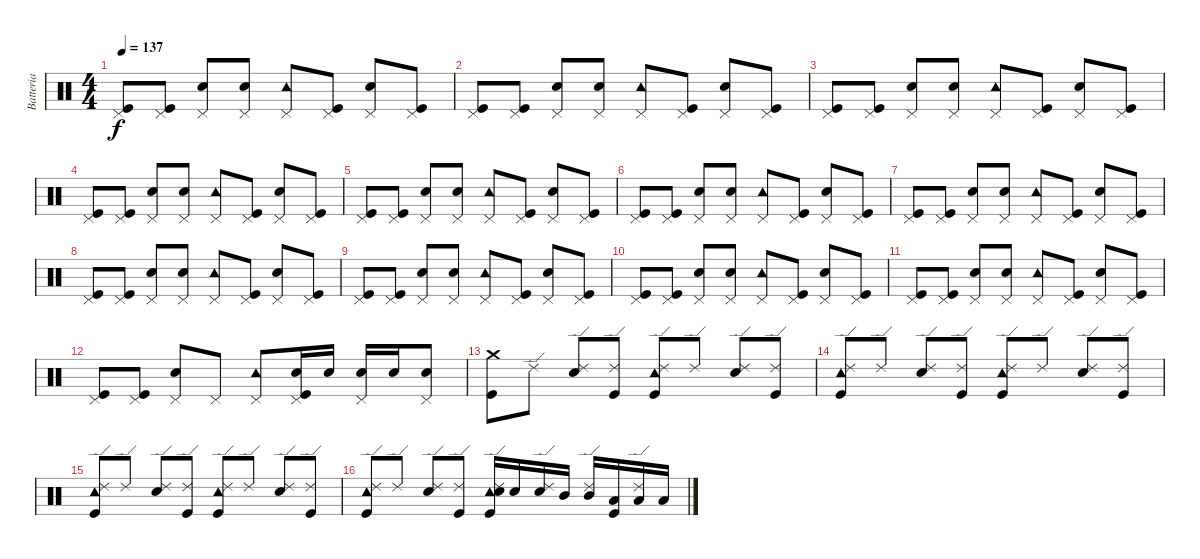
\track ("Batteria" "Batteria") {instrument percussion}
\staff {score}
\articulation defaults
\ts (4 4)
\tempo 137
\clef neutral
\ks c
("Pedal Hi-Hat (hit)" "Kick (hit)").8{dy f} ("Pedal Hi-Hat (hit)" "Kick (hit)").8 ("Pedal Hi-Hat (hit)" "Electric Snare (hit)").8 ("Pedal Hi-Hat (hit)" "Electric Snare (hit)").8 ("Pedal Hi-Hat (hit)" "Tambourine (hit)").8 ("Pedal Hi-Hat (hit)" "Kick (hit)").8 ("Pedal Hi-Hat (hit)" "Electric Snare (hit)").8 ("Pedal Hi-Hat (hit)" "Kick (hit)").8 |
("Pedal Hi-Hat (hit)" "Kick (hit)").8 ("Pedal Hi-Hat (hit)" "Kick (hit)").8 ("Pedal Hi-Hat (hit)" "Electric Snare (hit)").8 ("Pedal Hi-Hat (hit)" "Electric Snare (hit)").8 ("Pedal Hi-Hat (hit)" "Tambourine (hit)").8 ("Pedal Hi-Hat (hit)" "Kick (hit)").8 ("Pedal Hi-Hat (hit)" "Electric Snare (hit)").8 ("Pedal Hi-Hat (hit)" "Kick (hit)").8 |
("Pedal Hi-Hat (hit)" "Kick (hit)").8 ("Pedal Hi-Hat (hit)" "Kick (hit)").8 ("Pedal Hi-Hat (hit)" "Electric Snare (hit)").8 ("Pedal Hi-Hat (hit)" "Electric Snare (hit)").8 ("Pedal Hi-Hat (hit)" "Tambourine (hit)").8 ("Pedal Hi-Hat (hit)" "Kick (hit)").8 ("Pedal Hi-Hat (hit)" "Electric Snare (hit)").8 ("Pedal Hi-Hat (hit)" "Kick (hit)").8 |
("Pedal Hi-Hat (hit)" "Kick (hit)").8 ("Pedal Hi-Hat (hit)" "Kick (hit)").8 ("Pedal Hi-Hat (hit)" "Electric Snare (hit)").8 ("Pedal Hi-Hat (hit)" "Electric Snare (hit)").8 ("Pedal Hi-Hat (hit)" "Tambourine (hit)").8 ("Pedal Hi-Hat (hit)" "Kick (hit)").8 ("Pedal Hi-Hat (hit)" "Electric Snare (hit)").8 ("Pedal Hi-Hat (hit)" "Kick (hit)").8 |
("Pedal Hi-Hat (hit)" "Kick (hit)").8 ("Pedal Hi-Hat (hit)" "Kick (hit)").8 ("Pedal Hi-Hat (hit)" "Electric Snare (hit)").8 ("Pedal Hi-Hat (hit)" "Electric Snare (hit)").8 ("Pedal Hi-Hat (hit)" "Tambourine (hit)").8 ("Pedal Hi-Hat (hit)" "Kick (hit)").8 ("Pedal Hi-Hat (hit)" "Electric Snare (hit)").8 ("Pedal Hi-Hat (hit)" "Kick (hit)").8 |
("Pedal Hi-Hat (hit)" "Kick (hit)").8 ("Pedal Hi-Hat (hit)" "Kick (hit)").8 ("Pedal Hi-Hat (hit)" "Electric Snare (hit)").8 ("Pedal Hi-Hat (hit)" "Electric Snare (hit)").8 ("Pedal Hi-Hat (hit)" "Tambourine (hit)").8 ("Pedal Hi-Hat (hit)" "Kick (hit)").8 ("Pedal Hi-Hat (hit)" "Electric Snare (hit)").8 ("Pedal Hi-Hat (hit)" "Kick (hit)").8 |
("Pedal Hi-Hat (hit)" "Kick (hit)").8 ("Pedal Hi-Hat (hit)" "Kick (hit)").8 ("Pedal Hi-Hat (hit)" "Electric Snare (hit)").8 ("Pedal Hi-Hat (hit)" "Electric Snare (hit)").8 ("Pedal Hi-Hat (hit)" "Tambourine (hit)").8 ("Pedal Hi-Hat (hit)" "Kick (hit)").8 ("Pedal Hi-Hat (hit)" "Electric Snare (hit)").8 ("Pedal Hi-Hat (hit)" "Kick (hit)").8 |
("Pedal Hi-Hat (hit)" "Kick (hit)").8 ("Pedal Hi-Hat (hit)" "Kick (hit)").8 ("Pedal Hi-Hat (hit)" "Electric Snare (hit)").8 ("Pedal Hi-Hat (hit)" "Electric Snare (hit)").8 ("Pedal Hi-Hat (hit)" "Tambourine (hit)").8 ("Pedal Hi-Hat (hit)" "Kick (hit)").8 ("Pedal Hi-Hat (hit)" "Electric Snare (hit)").8 ("Pedal Hi-Hat (hit)" "Kick (hit)").8 |
("Pedal Hi-Hat (hit)" "Kick (hit)").8 ("Pedal Hi-Hat (hit)" "Kick (hit)").8 ("Pedal Hi-Hat (hit)" "Electric Snare (hit)").8 ("Pedal Hi-Hat (hit)" "Electric Snare (hit)").8 ("Pedal Hi-Hat (hit)" "Tambourine (hit)").8 ("Pedal Hi-Hat (hit)" "Kick (hit)").8 ("Pedal Hi-Hat (hit)" "Electric Snare (hit)").8 ("Pedal Hi-Hat (hit)" "Kick (hit)").8 |
("Pedal Hi-Hat (hit)" "Kick (hit)").8 ("Pedal Hi-Hat (hit)" "Kick (hit)").8 ("Pedal Hi-Hat (hit)" "Electric Snare (hit)").8 ("Pedal Hi-Hat (hit)" "Electric Snare (hit)").8 ("Pedal Hi-Hat (hit)" "Tambourine (hit)").8 ("Pedal Hi-Hat (hit)" "Kick (hit)").8 ("Pedal Hi-Hat (hit)" "Electric Snare (hit)").8 ("Pedal Hi-Hat (hit)" "Kick (hit)").8 |
("Pedal Hi-Hat (hit)" "Kick (hit)").8 ("Pedal Hi-Hat (hit)" "Kick (hit)").8 ("Pedal Hi-Hat (hit)" "Electric Snare (hit)").8 ("Pedal Hi-Hat (hit)" "Electric Snare (hit)").8 ("Pedal Hi-Hat (hit)" "Tambourine (hit)").8 ("Pedal Hi-Hat (hit)" "Kick (hit)").8 ("Pedal Hi-Hat (hit)" "Electric Snare (hit)").8 ("Pedal Hi-Hat (hit)" "Kick (hit)").8 |
("Pedal Hi-Hat (hit)" "Kick (hit)").8 ("Pedal Hi-Hat (hit)" "Kick (hit)").8 ("Pedal Hi-Hat (hit)" "Electric Snare (hit)").8 "Pedal Hi-Hat (hit)".8 ("Pedal Hi-Hat (hit)" "Tambourine (hit)").8 ("Pedal Hi-Hat (hit)" "Electric Snare (hit)" "Kick (hit)").16 "Electric Snare (hit)".16 ("Pedal Hi-Hat (hit)" "Electric Snare (hit)").16 "Electric Snare (hit)".16 ("Pedal Hi-Hat (hit)" "Electric Snare (hit)").8 |
("Crash medium (hit)" "Kick (hit)").8 "Ride (edge) 2".8 ("Ride (edge) 2" "Electric Snare (hit)").8 ("Ride (edge) 2" "Kick (hit)").8 ("Ride (edge) 2" "Tambourine (hit)" "Kick (hit)").8 "Ride (edge) 2".8 ("Ride (edge) 2" "Electric Snare (hit)").8 ("Ride (edge) 2" "Kick (hit)").8 |
("Ride (edge) 2" "Tambourine (hit)" "Kick (hit)").8 "Ride (edge) 2".8 ("Ride (edge) 2" "Electric Snare (hit)").8 ("Ride (edge) 2" "Kick (hit)").8 ("Ride (edge) 2" "Tambourine (hit)" "Kick (hit)").8 "Ride (edge) 2".8 ("Ride (edge) 2" "Electric Snare (hit)").8 ("Ride (edge) 2" "Kick (hit)").8 |
("Ride (edge) 2" "Tambourine (hit)" "Kick (hit)").8 "Ride (edge) 2".8 ("Ride (edge) 2" "Electric Snare (hit)").8 ("Ride (edge) 2" "Kick (hit)").8 ("Ride (edge) 2" "Tambourine (hit)" "Kick (hit)").8 "Ride (edge) 2".8 ("Ride (edge) 2" "Electric Snare (hit)").8 ("Ride (edge) 2" "Kick (hit)").8 |
("Ride (edge) 2" "Tambourine (hit)" "Kick (hit)").8 "Ride (edge) 2".8 ("Ride (edge) 2" "Electric Snare (hit)").8 ("Ride (edge) 2" "Kick (hit)").8 ("Ride (edge) 2" "Tambourine (hit)" "Electric Snare (hit)" "Kick (hit)").16 "Electric Snare (hit)".16 ("Ride (edge) 2" "Electric Snare (hit)").16 "Mid Tom (hit)".16 ("Ride (edge) 2" "Mid Tom (hit)").16 ("Low Tom (hit)" "Kick (hit)").16 ("Ride (edge) 2" "Low Tom (hit)").16 "Low Floor Tom (hit)".16
